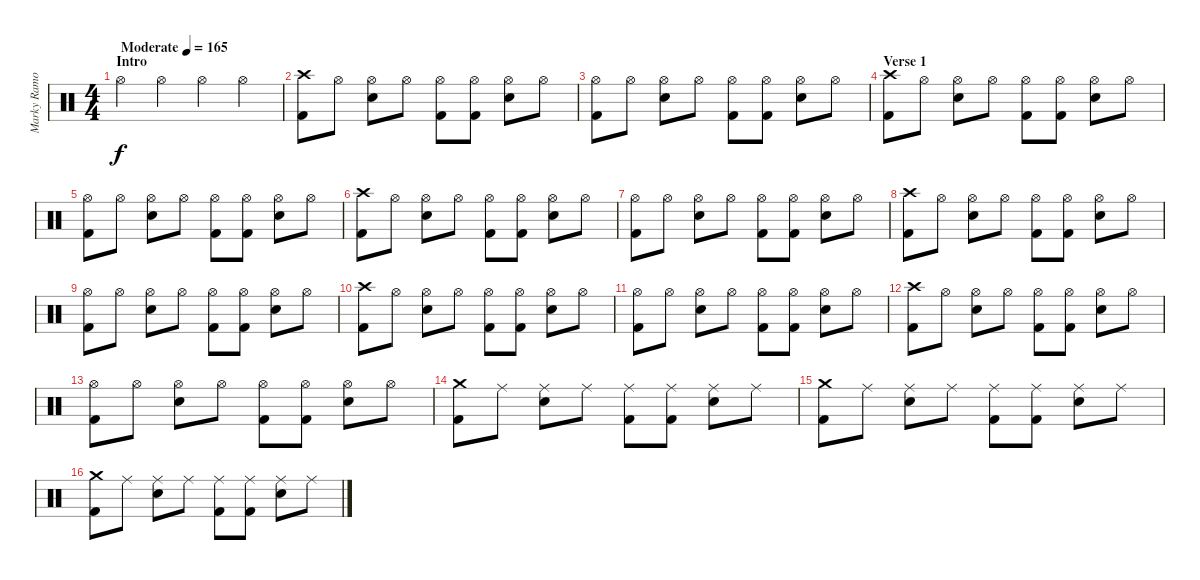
\track ("Marky Ramone" "Marky Ramo") {instrument percussion}
\staff {score}
\articulation defaults
\ts (4 4)
\section ("" "Intro")
\tempo (165 "Moderate")
\clef neutral
\ks c "Hi-Hat (open)".4{dy f} "Hi-Hat (open)".4 "Hi-Hat (open)".4 "Hi-Hat (open)".4
|
("Crash high (hit)" "Kick (hit) 2").8 "Hi-Hat (open)".8 ("Hi-Hat (open)" "Snare (hit) 2").8 "Hi-Hat (open)".8 ("Hi-Hat (open)" "Kick (hit) 2").8 ("Hi-Hat (open)" "Kick (hit) 2").8 ("Hi-Hat (open)" "Snare (hit) 2").8 "Hi-Hat (open)".8 |
("Hi-Hat (open)" "Kick (hit) 2").8 "Hi-Hat (open)".8 ("Hi-Hat (open)" "Snare (hit) 2").8 "Hi-Hat (open)".8 ("Hi-Hat (open)" "Kick (hit) 2").8 ("Hi-Hat (open)" "Kick (hit) 2").8 ("Hi-Hat (open)" "Snare (hit) 2").8 "Hi-Hat (open)".8 |
\section ("" "Verse 1")
("Crash high (hit)" "Kick (hit) 2").8 "Hi-Hat (open)".8 ("Hi-Hat (open)" "Snare (hit) 2").8 "Hi-Hat (open)".8 ("Hi-Hat (open)" "Kick (hit) 2").8 ("Hi-Hat (open)" "Kick (hit) 2").8 ("Hi-Hat (open)" "Snare (hit) 2").8 "Hi-Hat (open)".8 |
("Hi-Hat (open)" "Kick (hit) 2").8 "Hi-Hat (open)".8 ("Hi-Hat (open)" "Snare (hit) 2").8 "Hi-Hat (open)".8 ("Hi-Hat (open)" "Kick (hit) 2").8 ("Hi-Hat (open)" "Kick (hit) 2").8 ("Hi-Hat (open)" "Snare (hit) 2").8 "Hi-Hat (open)".8 |
("Crash high (hit)" "Kick (hit) 2").8 "Hi-Hat (open)".8 ("Hi-Hat (open)" "Snare (hit) 2").8 "Hi-Hat (open)".8 ("Hi-Hat (open)" "Kick (hit) 2").8 ("Hi-Hat (open)" "Kick (hit) 2").8 ("Hi-Hat (open)" "Snare (hit) 2").8 "Hi-Hat (open)".8 |
("Hi-Hat (open)" "Kick (hit) 2").8 "Hi-Hat (open)".8 ("Hi-Hat (open)" "Snare (hit) 2").8 "Hi-Hat (open)".8 ("Hi-Hat (open)" "Kick (hit) 2").8 ("Hi-Hat (open)" "Kick (hit) 2").8 ("Hi-Hat (open)" "Snare (hit) 2").8 "Hi-Hat (open)".8 |
("Crash high (hit)" "Kick (hit) 2").8 "Hi-Hat (open)".8 ("Hi-Hat (open)" "Snare (hit) 2").8 "Hi-Hat (open)".8 ("Hi-Hat (open)" "Kick (hit) 2").8 ("Hi-Hat (open)" "Kick (hit) 2").8 ("Hi-Hat (open)" "Snare (hit) 2").8 "Hi-Hat (open)".8 |
("Hi-Hat (open)" "Kick (hit) 2").8 "Hi-Hat (open)".8 ("Hi-Hat (open)" "Snare (hit) 2").8 "Hi-Hat (open)".8 ("Hi-Hat (open)" "Kick (hit) 2").8 ("Hi-Hat (open)" "Kick (hit) 2").8 ("Hi-Hat (open)" "Snare (hit) 2").8 "Hi-Hat (open)".8 |
("Crash high (hit)" "Kick (hit) 2").8 "Hi-Hat (open)".8 ("Hi-Hat (open)" "Snare (hit) 2").8 "Hi-Hat (open)".8 ("Hi-Hat (open)" "Kick (hit) 2").8 ("Hi-Hat (open)" "Kick (hit) 2").8 ("Hi-Hat (open)" "Snare (hit) 2").8 "Hi-Hat (open)".8 |
("Hi-Hat (open)" "Kick (hit) 2").8 "Hi-Hat (open)".8 ("Hi-Hat (open)" "Snare (hit) 2").8 "Hi-Hat (open)".8 ("Hi-Hat (open)" "Kick (hit) 2").8 ("Hi-Hat (open)" "Kick (hit) 2").8 ("Hi-Hat (open)" "Snare (hit) 2").8 "Hi-Hat (open)".8 |
("Crash high (hit)" "Kick (hit) 2").8 "Hi-Hat (open)".8 ("Hi-Hat (open)" "Snare (hit) 2").8 "Hi-Hat (open)".8 ("Hi-Hat (open)" "Kick (hit) 2").8 ("Hi-Hat (open)" "Kick (hit) 2").8 ("Hi-Hat (open)" "Snare (hit) 2").8 "Hi-Hat (open)".8 |
("Hi-Hat (open)" "Kick (hit) 2").8 "Hi-Hat (open)".8 ("Hi-Hat (open)" "Snare (hit) 2").8 "Hi-Hat (open)".8 ("Hi-Hat (open)" "Kick (hit) 2").8 ("Hi-Hat (open)" "Kick (hit) 2").8 ("Hi-Hat (open)" "Snare (hit) 2").8 "Hi-Hat (open)".8 |
("Crash medium (hit)" "Kick (hit) 2").8 "Ride (middle)".8 ("Ride (middle)" "Snare (hit) 2").8 "Ride (middle)".8 ("Ride (middle)" "Kick (hit) 2").8 ("Ride (middle)" "Kick (hit) 2").8 ("Ride (middle)" "Snare (hit) 2").8 "Ride (middle)".8 |
("Crash medium (hit)" "Kick (hit) 2").8 "Ride (middle)".8 ("Ride (middle)" "Snare (hit) 2").8 "Ride (middle)".8 ("Ride (middle)" "Kick (hit) 2").8 ("Ride (middle)" "Kick (hit) 2").8 ("Ride (middle)" "Snare (hit) 2").8 "Ride (middle)".8 |
("Crash medium (hit)" "Kick (hit) 2").8 "Ride (middle)".8 ("Ride (middle)" "Snare (hit) 2").8 "Ride (middle)".8 ("Ride (middle)" "Kick (hit) 2").8 ("Ride (middle)" "Kick (hit) 2").8 ("Ride (middle)" "Snare (hit) 2").8 "Ride (middle)".8
